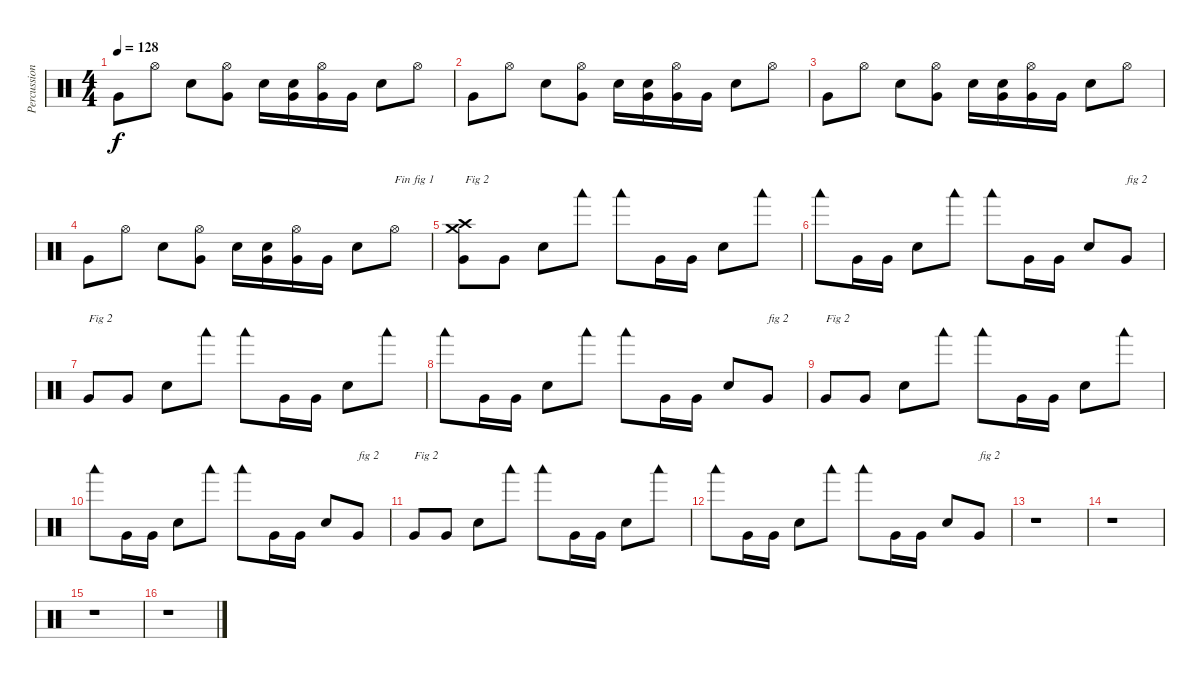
\track ("Percussions" "Percussion") {instrument percussion}
\staff {score}
\articulation defaults
\ts (4 4)
\tempo 128
\clef neutral
\ks c "Very Low Tom (hit)".8{dy f} "Hi-Hat (open)".8 "Snare (hit) 2".8
("Very Low Tom (hit)" "Hi-Hat (open)").8 "Snare (hit) 2".16 ("Very Low Tom (hit)" "Snare (hit) 2").16 ("Very Low Tom (hit)" "Hi-Hat (open)").16 "Very Low Tom (hit)".16 "Snare (hit) 2".8 "Hi-Hat (open)".8 |
"Very Low Tom (hit)".8 "Hi-Hat (open)".8 "Snare (hit) 2".8 ("Very Low Tom (hit)" "Hi-Hat (open)").8 "Snare (hit) 2".16 ("Very Low Tom (hit)" "Snare (hit) 2").16 ("Very Low Tom (hit)" "Hi-Hat (open)").16 "Very Low Tom (hit)".16 "Snare (hit) 2".8 "Hi-Hat (open)".8 |
"Very Low Tom (hit)".8 "Hi-Hat (open)".8 "Snare (hit) 2".8 ("Very Low Tom (hit)" "Hi-Hat (open)").8 "Snare (hit) 2".16 ("Very Low Tom (hit)" "Snare (hit) 2").16 ("Very Low Tom (hit)" "Hi-Hat (open)").16 "Very Low Tom (hit)".16 "Snare (hit) 2".8 "Hi-Hat (open)".8 |
"Very Low Tom (hit)".8 "Hi-Hat (open)".8 "Snare (hit) 2".8 ("Very Low Tom (hit)" "Hi-Hat (open)").8 "Snare (hit) 2".16 ("Very Low Tom (hit)" "Snare (hit) 2").16 ("Very Low Tom (hit)" "Hi-Hat (open)").16 "Very Low Tom (hit)".16 "Snare (hit) 2".8 "Hi-Hat (open)".8{txt "Fin fig 1"} |
("Very Low Tom (hit)" "Crash medium (hit)" "Crash high (hit)").8{txt "Fig 2"} "Very Low Tom (hit)".8 "Snare (hit) 2".8 "Woodblock low (hit)".8 "Woodblock low (hit)".8 "Very Low Tom (hit)".16 "Very Low Tom (hit)".16 "Snare (hit) 2".8 "Woodblock low (hit)".8 |
"Woodblock low (hit)".8 "Very Low Tom (hit)".16 "Very Low Tom (hit)".16 "Snare (hit) 2".8 "Woodblock low (hit)".8 "Woodblock low (hit)".8 "Very Low Tom (hit)".16 "Very Low Tom (hit)".16 "Snare (hit) 2".8 "Very Low Tom (hit)".8{txt "fig 2"} |
"Very Low Tom (hit)".8{txt "Fig 2"} "Very Low Tom (hit)".8 "Snare (hit) 2".8 "Woodblock low (hit)".8 "Woodblock low (hit)".8 "Very Low Tom (hit)".16 "Very Low Tom (hit)".16 "Snare (hit) 2".8 "Woodblock low (hit)".8 |
"Woodblock low (hit)".8 "Very Low Tom (hit)".16 "Very Low Tom (hit)".16 "Snare (hit) 2".8 "Woodblock low (hit)".8 "Woodblock low (hit)".8 "Very Low Tom (hit)".16 "Very Low Tom (hit)".16 "Snare (hit) 2".8 "Very Low Tom (hit)".8{txt "fig 2"} |
"Very Low Tom (hit)".8{txt "Fig 2"} "Very Low Tom (hit)".8 "Snare (hit) 2".8 "Woodblock low (hit)".8 "Woodblock low (hit)".8 "Very Low Tom (hit)".16 "Very Low Tom (hit)".16 "Snare (hit) 2".8 "Woodblock low (hit)".8 |
"Woodblock low (hit)".8 "Very Low Tom (hit)".16 "Very Low Tom (hit)".16 "Snare (hit) 2".8 "Woodblock low (hit)".8 "Woodblock low (hit)".8 "Very Low Tom (hit)".16 "Very Low Tom (hit)".16 "Snare (hit) 2".8 "Very Low Tom (hit)".8{txt "fig 2"} |
"Very Low Tom (hit)".8{txt "Fig 2"} "Very Low Tom (hit)".8 "Snare (hit) 2".8 "Woodblock low (hit)".8 "Woodblock low (hit)".8 "Very Low Tom (hit)".16 "Very Low Tom (hit)".16 "Snare (hit) 2".8 "Woodblock low (hit)".8 |
"Woodblock low (hit)".8 "Very Low Tom (hit)".16 "Very Low Tom (hit)".16 "Snare (hit) 2".8 "Woodblock low (hit)".8 "Woodblock low (hit)".8 "Very Low Tom (hit)".16 "Very Low Tom (hit)".16 "Snare (hit) 2".8 "Very Low Tom (hit)".8{txt "fig 2"} |
r.1 |
r.1 |
r.1 |
r.1
